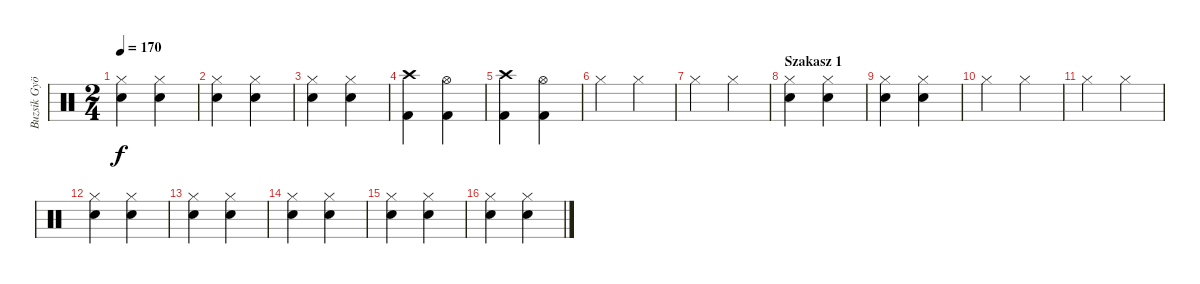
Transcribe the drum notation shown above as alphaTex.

\track ("Buzsik György (dob)" "Buzsik Gyö") {instrument percussion}
\staff {score}
\articulation defaults
\ts (2 4)
\tempo 170
\clef neutral
\ks c
("Hi-Hat (closed)" "Snare (hit) 2").4{dy f} ("Hi-Hat (closed)" "Snare (hit) 2").4 |
("Hi-Hat (closed)" "Snare (hit) 2").4 ("Hi-Hat (closed)" "Snare (hit) 2").4 |
("Hi-Hat (closed)" "Snare (hit) 2").4 ("Hi-Hat (closed)" "Snare (hit) 2").4 |
("Crash high (hit)" "Kick (hit) 2").4 ("Hi-Hat (open)" "Kick (hit) 2").4 |
("Crash high (hit)" "Kick (hit) 2").4 ("Hi-Hat (open)" "Kick (hit) 2").4 |
"Hi-Hat (closed)".4 "Hi-Hat (closed)".4 |
"Hi-Hat (closed)".4 "Hi-Hat (closed)".4 |
\section ("" "Szakasz 1")
("Hi-Hat (closed)" "Snare (hit) 2").4 ("Hi-Hat (closed)" "Snare (hit) 2").4 |
("Hi-Hat (closed)" "Snare (hit) 2").4 ("Hi-Hat (closed)" "Snare (hit) 2").4 |
"Hi-Hat (closed)".4 "Hi-Hat (closed)".4 |
"Hi-Hat (closed)".4 "Hi-Hat (closed)".4 |
("Hi-Hat (closed)" "Snare (hit) 2").4 ("Hi-Hat (closed)" "Snare (hit) 2").4 |
("Hi-Hat (closed)" "Snare (hit) 2").4 ("Hi-Hat (closed)" "Snare (hit) 2").4 |
("Hi-Hat (closed)" "Snare (hit) 2").4 ("Hi-Hat (closed)" "Snare (hit) 2").4 |
("Hi-Hat (closed)" "Snare (hit) 2").4 ("Hi-Hat (closed)" "Snare (hit) 2").4 |
("Hi-Hat (closed)" "Snare (hit) 2").4 ("Hi-Hat (closed)" "Snare (hit) 2").4
